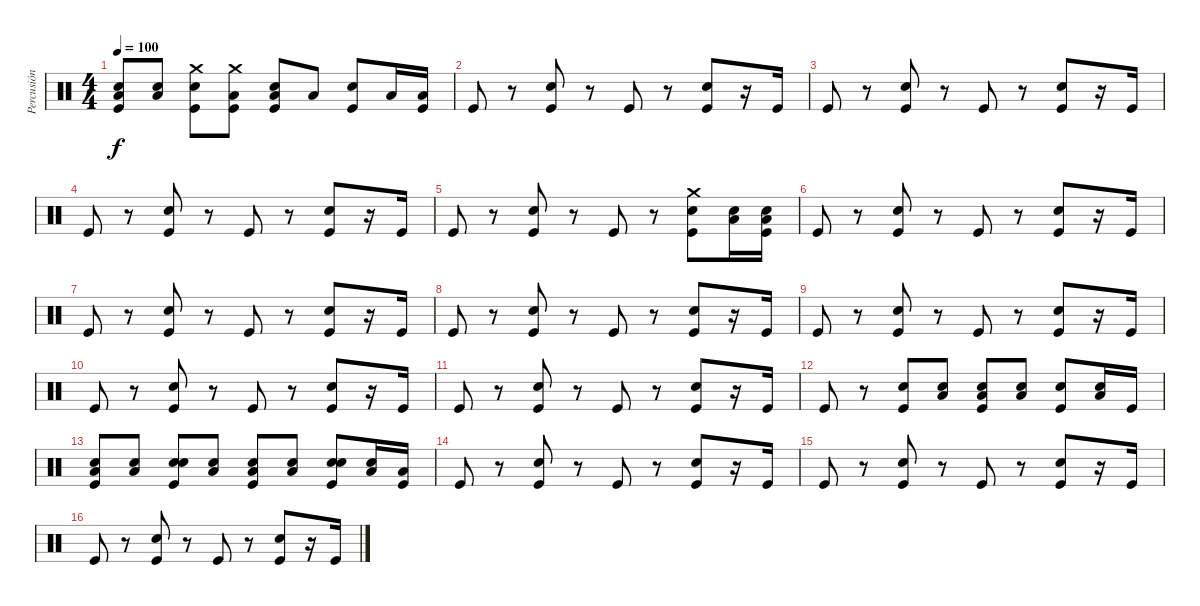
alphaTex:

\track ("Percusión" "Percusión") {instrument percussion}
\staff {score}
\articulation defaults
\ts (4 4)
\tempo 100
\clef neutral
\ks c
("Kick (hit)" "Electric Snare (hit)" "Low Floor Tom (hit)").8{dy f} ("Electric Snare (hit)" "Low Floor Tom (hit)").8 ("Kick (hit)" "Electric Snare (hit)" "Crash medium (hit)").8 ("Kick (hit)" "Low Floor Tom (hit)" "Crash medium (hit)").8 ("Kick (hit)" "Electric Snare (hit)" "Low Floor Tom (hit)").8 "Low Floor Tom (hit)".8 ("Kick (hit)" "Electric Snare (hit)").8 "Low Floor Tom (hit)".16 ("Kick (hit)" "Low Floor Tom (hit)").16 |
"Kick (hit)".8 r.8 ("Kick (hit)" "Electric Snare (hit)").8 r.8 "Kick (hit)".8 r.8 ("Kick (hit)" "Electric Snare (hit)").8 r.16 "Kick (hit)".16 |
"Kick (hit)".8 r.8 ("Kick (hit)" "Electric Snare (hit)").8 r.8 "Kick (hit)".8 r.8 ("Kick (hit)" "Electric Snare (hit)").8 r.16 "Kick (hit)".16 |
"Kick (hit)".8 r.8 ("Kick (hit)" "Electric Snare (hit)").8 r.8 "Kick (hit)".8 r.8 ("Kick (hit)" "Electric Snare (hit)").8 r.16 "Kick (hit)".16 |
"Kick (hit)".8 r.8 ("Kick (hit)" "Electric Snare (hit)").8 r.8 "Kick (hit)".8 r.8 ("Kick (hit)" "Electric Snare (hit)" "Crash medium (hit)").8 ("Low Floor Tom (hit)" "Snare (hit) 2").16 ("Kick (hit)" "Low Floor Tom (hit)" "Snare (hit) 2").16 |
"Kick (hit)".8 r.8 ("Kick (hit)" "Electric Snare (hit)").8 r.8 "Kick (hit)".8 r.8 ("Kick (hit)" "Electric Snare (hit)").8 r.16 "Kick (hit)".16 |
"Kick (hit)".8 r.8 ("Kick (hit)" "Electric Snare (hit)").8 r.8 "Kick (hit)".8 r.8 ("Kick (hit)" "Electric Snare (hit)").8 r.16 "Kick (hit)".16 |
"Kick (hit)".8 r.8 ("Kick (hit)" "Electric Snare (hit)").8 r.8 "Kick (hit)".8 r.8 ("Kick (hit)" "Electric Snare (hit)").8 r.16 "Kick (hit)".16 |
"Kick (hit)".8 r.8 ("Kick (hit)" "Electric Snare (hit)").8 r.8 "Kick (hit)".8 r.8 ("Kick (hit)" "Electric Snare (hit)").8 r.16 "Kick (hit)".16 |
"Kick (hit)".8 r.8 ("Kick (hit)" "Electric Snare (hit)").8 r.8 "Kick (hit)".8 r.8 ("Kick (hit)" "Electric Snare (hit)").8 r.16 "Kick (hit)".16 |
"Kick (hit)".8 r.8 ("Kick (hit)" "Electric Snare (hit)").8 r.8 "Kick (hit)".8 r.8 ("Kick (hit)" "Electric Snare (hit)").8 r.16 "Kick (hit)".16 |
"Kick (hit)".8 r.8 ("Kick (hit)" "Electric Snare (hit)").8 ("Low Floor Tom (hit)" "Electric Snare (hit)").8 ("Kick (hit)" "Low Floor Tom (hit)" "Electric Snare (hit)").8 ("Low Floor Tom (hit)" "Electric Snare (hit)").8 ("Kick (hit)" "Electric Snare (hit)").8 ("Low Floor Tom (hit)" "Electric Snare (hit)").16 "Kick (hit)".16 |
("Kick (hit)" "Low Floor Tom (hit)" "Electric Snare (hit)").8 ("Low Floor Tom (hit)" "Electric Snare (hit)").8 ("Kick (hit)" "Electric Snare (hit)" "Electric Snare (hit)").8 ("Low Floor Tom (hit)" "Electric Snare (hit)").8 ("Kick (hit)" "Low Floor Tom (hit)" "Electric Snare (hit)").8 ("Low Floor Tom (hit)" "Electric Snare (hit)").8 ("Kick (hit)" "Electric Snare (hit)" "Electric Snare (hit)").8 ("Low Floor Tom (hit)" "Electric Snare (hit)").16 ("Kick (hit)" "Low Floor Tom (hit)").16 |
"Kick (hit)".8 r.8 ("Kick (hit)" "Electric Snare (hit)").8 r.8 "Kick (hit)".8 r.8 ("Kick (hit)" "Electric Snare (hit)").8 r.16 "Kick (hit)".16 |
"Kick (hit)".8 r.8 ("Kick (hit)" "Electric Snare (hit)").8 r.8 "Kick (hit)".8 r.8 ("Kick (hit)" "Electric Snare (hit)").8 r.16 "Kick (hit)".16 |
"Kick (hit)".8 r.8 ("Kick (hit)" "Electric Snare (hit)").8 r.8 "Kick (hit)".8 r.8 ("Kick (hit)" "Electric Snare (hit)").8 r.16 "Kick (hit)".16
